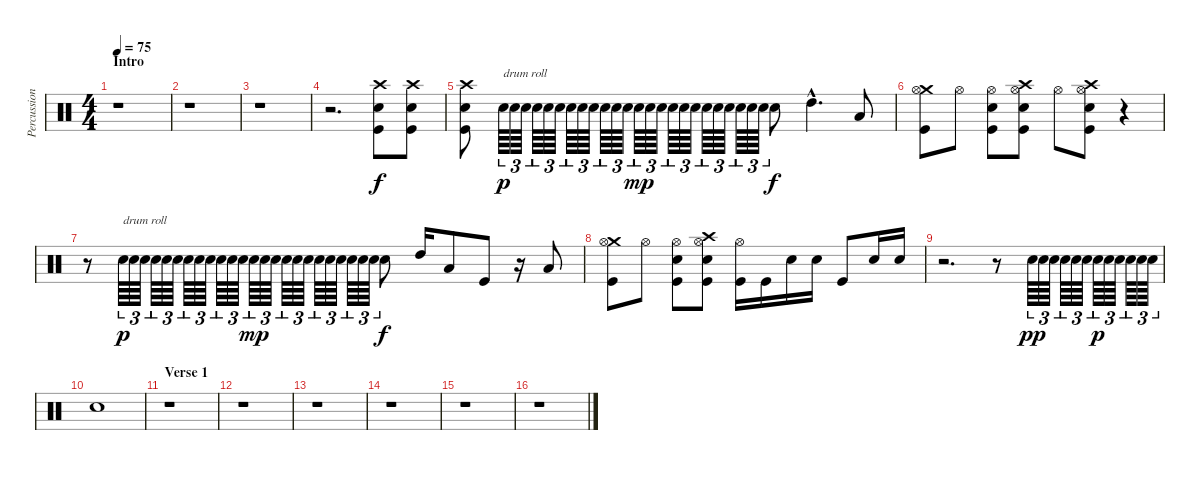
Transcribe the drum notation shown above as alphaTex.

\track ("Percussion - Adam Topol" "Percussion") {instrument percussion}
\staff {score}
\articulation defaults
\ts (4 4)
\section ("" "Intro")
\tempo 75
\clef neutral
\ks c
r.1{dy f} |
r.1 |
r.1 |
r.2{d} ("Crash high (hit)" "Electric Snare (hit)" "Kick (hit)").8 ("Crash high (hit)" "Electric Snare (hit)" "Kick (hit)").8 |
("Crash high (hit)" "Electric Snare (hit)" "Kick (hit)").8 "Electric Snare (hit)".64{tu (3 2) txt "drum roll" dy p} "Electric Snare (hit)".64{tu (3 2)} "Electric Snare (hit)".64{tu (3 2)} "Electric Snare (hit)".64{tu (3 2)} "Electric Snare (hit)".64{tu (3 2)} "Electric Snare (hit)".64{tu (3 2)} "Electric Snare (hit)".64{tu (3 2)} "Electric Snare (hit)".64{tu (3 2)} "Electric Snare (hit)".64{tu (3 2)} "Electric Snare (hit)".64{tu (3 2)} "Electric Snare (hit)".64{tu (3 2)} "Electric Snare (hit)".64{tu (3 2)} "Electric Snare (hit)".64{tu (3 2) dy mp} "Electric Snare (hit)".64{tu (3 2)} "Electric Snare (hit)".64{tu (3 2)} "Electric Snare (hit)".64{tu (3 2)} "Electric Snare (hit)".64{tu (3 2)} "Electric Snare (hit)".64{tu (3 2)} "Electric Snare (hit)".64{tu (3 2)} "Electric Snare (hit)".64{tu (3 2)} "Electric Snare (hit)".64{tu (3 2)} "Electric Snare (hit)".64{tu (3 2)} "Electric Snare (hit)".64{tu (3 2)} "Electric Snare (hit)".64{tu (3 2)} "Electric Snare (hit)".8{dy f} "High Tom (hit)"{hac}.4{d} "Low Floor Tom (hit)".8 |
("Crash medium (hit)" "Hi-Hat (open)" "Kick (hit)").8 "Hi-Hat (open)".8 ("Hi-Hat (open)" "Snare (hit) 2" "Kick (hit)").8 ("Crash high (hit)" "Hi-Hat (open)" "Snare (hit) 2" "Kick (hit)").8 "Hi-Hat (open)".8 ("Crash high (hit)" "Hi-Hat (open)" "Snare (hit) 2" "Kick (hit)").8 r.4 |
r.8 "Electric Snare (hit)".64{tu (3 2) txt "drum roll" dy p} "Electric Snare (hit)".64{tu (3 2)} "Electric Snare (hit)".64{tu (3 2)} "Electric Snare (hit)".64{tu (3 2)} "Electric Snare (hit)".64{tu (3 2)} "Electric Snare (hit)".64{tu (3 2)} "Electric Snare (hit)".64{tu (3 2)} "Electric Snare (hit)".64{tu (3 2)} "Electric Snare (hit)".64{tu (3 2)} "Electric Snare (hit)".64{tu (3 2)} "Electric Snare (hit)".64{tu (3 2)} "Electric Snare (hit)".64{tu (3 2)} "Electric Snare (hit)".64{tu (3 2) dy mp} "Electric Snare (hit)".64{tu (3 2)} "Electric Snare (hit)".64{tu (3 2)} "Electric Snare (hit)".64{tu (3 2)} "Electric Snare (hit)".64{tu (3 2)} "Electric Snare (hit)".64{tu (3 2)} "Electric Snare (hit)".64{tu (3 2)} "Electric Snare (hit)".64{tu (3 2)} "Electric Snare (hit)".64{tu (3 2)} "Electric Snare (hit)".64{tu (3 2)} "Electric Snare (hit)".64{tu (3 2)} "Electric Snare (hit)".64{tu (3 2)} "Electric Snare (hit)".8{dy f} "High Tom (hit)".16 "Low Tom (hit)".8 "Kick (hit)".8 r.16 "Low Floor Tom (hit)".8 |
("Crash medium (hit)" "Hi-Hat (open)" "Kick (hit)").8 "Hi-Hat (open)".8 ("Hi-Hat (open)" "Electric Snare (hit)" "Kick (hit)").8 ("Crash high (hit)" "Hi-Hat (open)" "Electric Snare (hit)" "Kick (hit)").8 ("Hi-Hat (open)" "Kick (hit)").16 "Kick (hit)".16 "Electric Snare (hit)".16 "Electric Snare (hit)".16 "Kick (hit)".8 "Electric Snare (hit)".16 "Electric Snare (hit)".16 |
r.2{d} r.8 "Electric Snare (hit)".64{tu (3 2) dy pp} "Electric Snare (hit)".64{tu (3 2)} "Electric Snare (hit)".64{tu (3 2)} "Electric Snare (hit)".64{tu (3 2)} "Electric Snare (hit)".64{tu (3 2)} "Electric Snare (hit)".64{tu (3 2)} "Electric Snare (hit)".64{tu (3 2) dy p} "Electric Snare (hit)".64{tu (3 2)} "Electric Snare (hit)".64{tu (3 2)} "Electric Snare (hit)".64{tu (3 2)} "Electric Snare (hit)".64{tu (3 2)} "Electric Snare (hit)".64{tu (3 2)} |
"Electric Snare (hit)".1 |
\section ("" "Verse 1")
r.1 |
r.1 |
r.1 |
r.1 |
r.1 |
r.1
